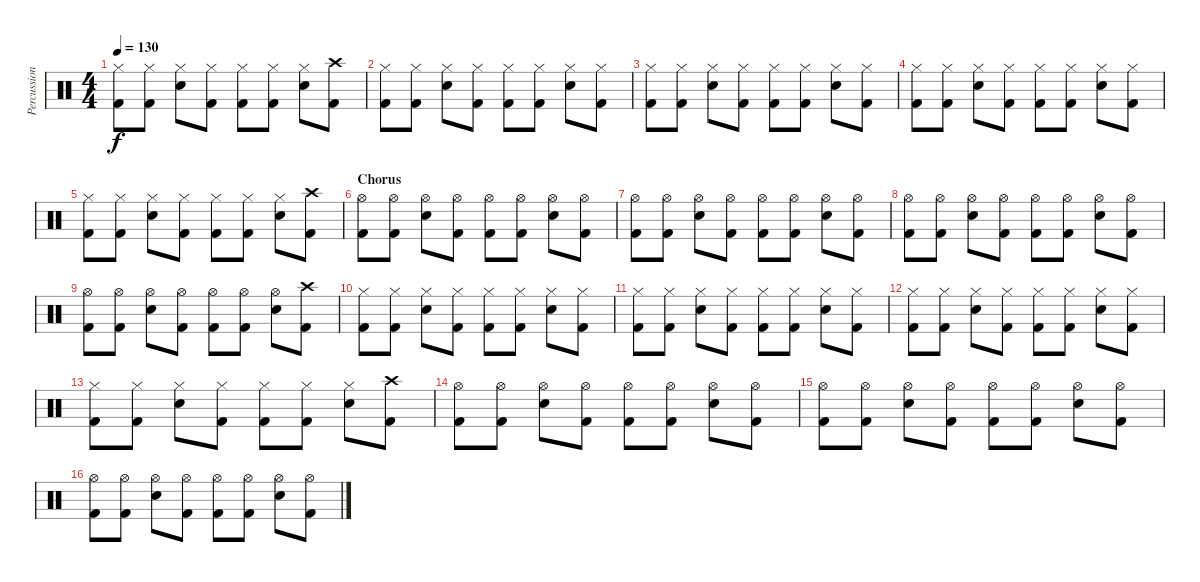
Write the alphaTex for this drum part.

\track ("Percussion" "Percussion") {instrument percussion}
\staff {score}
\articulation defaults
\ts (4 4)
\tempo 130
\clef neutral
\ks c
("Hi-Hat (closed)" "Kick (hit) 2").8{dy f} ("Hi-Hat (closed)" "Kick (hit) 2").8 ("Hi-Hat (closed)" "Electric Snare (hit)").8 ("Hi-Hat (closed)" "Kick (hit) 2").8 ("Hi-Hat (closed)" "Kick (hit) 2").8 ("Hi-Hat (closed)" "Kick (hit) 2").8 ("Hi-Hat (closed)" "Electric Snare (hit)").8 ("Crash high (hit)" "Kick (hit) 2").8 |
("Hi-Hat (closed)" "Kick (hit) 2").8 ("Hi-Hat (closed)" "Kick (hit) 2").8 ("Hi-Hat (closed)" "Electric Snare (hit)").8 ("Hi-Hat (closed)" "Kick (hit) 2").8 ("Hi-Hat (closed)" "Kick (hit) 2").8 ("Hi-Hat (closed)" "Kick (hit) 2").8 ("Hi-Hat (closed)" "Electric Snare (hit)").8 ("Hi-Hat (closed)" "Kick (hit) 2").8 |
("Hi-Hat (closed)" "Kick (hit) 2").8 ("Hi-Hat (closed)" "Kick (hit) 2").8 ("Hi-Hat (closed)" "Electric Snare (hit)").8 ("Hi-Hat (closed)" "Kick (hit) 2").8 ("Hi-Hat (closed)" "Kick (hit) 2").8 ("Hi-Hat (closed)" "Kick (hit) 2").8 ("Hi-Hat (closed)" "Electric Snare (hit)").8 ("Hi-Hat (closed)" "Kick (hit) 2").8 |
("Hi-Hat (closed)" "Kick (hit) 2").8 ("Hi-Hat (closed)" "Kick (hit) 2").8 ("Hi-Hat (closed)" "Electric Snare (hit)").8 ("Hi-Hat (closed)" "Kick (hit) 2").8 ("Hi-Hat (closed)" "Kick (hit) 2").8 ("Hi-Hat (closed)" "Kick (hit) 2").8 ("Hi-Hat (closed)" "Electric Snare (hit)").8 ("Hi-Hat (closed)" "Kick (hit) 2").8 |
("Hi-Hat (closed)" "Kick (hit) 2").8 ("Hi-Hat (closed)" "Kick (hit) 2").8 ("Hi-Hat (closed)" "Electric Snare (hit)").8 ("Hi-Hat (closed)" "Kick (hit) 2").8 ("Hi-Hat (closed)" "Kick (hit) 2").8 ("Hi-Hat (closed)" "Kick (hit) 2").8 ("Hi-Hat (closed)" "Electric Snare (hit)").8 ("Crash high (hit)" "Kick (hit) 2").8 |
\section ("" "Chorus")
("Hi-Hat (open)" "Kick (hit) 2").8 ("Hi-Hat (open)" "Kick (hit) 2").8 ("Hi-Hat (open)" "Electric Snare (hit)").8 ("Hi-Hat (open)" "Kick (hit) 2").8 ("Hi-Hat (open)" "Kick (hit) 2").8 ("Hi-Hat (open)" "Kick (hit) 2").8 ("Hi-Hat (open)" "Electric Snare (hit)").8 ("Hi-Hat (open)" "Kick (hit) 2").8 |
("Hi-Hat (open)" "Kick (hit) 2").8 ("Hi-Hat (open)" "Kick (hit) 2").8 ("Hi-Hat (open)" "Electric Snare (hit)").8 ("Hi-Hat (open)" "Kick (hit) 2").8 ("Hi-Hat (open)" "Kick (hit) 2").8 ("Hi-Hat (open)" "Kick (hit) 2").8 ("Hi-Hat (open)" "Electric Snare (hit)").8 ("Hi-Hat (open)" "Kick (hit) 2").8 |
("Hi-Hat (open)" "Kick (hit) 2").8 ("Hi-Hat (open)" "Kick (hit) 2").8 ("Hi-Hat (open)" "Electric Snare (hit)").8 ("Hi-Hat (open)" "Kick (hit) 2").8 ("Hi-Hat (open)" "Kick (hit) 2").8 ("Hi-Hat (open)" "Kick (hit) 2").8 ("Hi-Hat (open)" "Electric Snare (hit)").8 ("Hi-Hat (open)" "Kick (hit) 2").8 |
("Hi-Hat (open)" "Kick (hit) 2").8 ("Hi-Hat (open)" "Kick (hit) 2").8 ("Hi-Hat (open)" "Electric Snare (hit)").8 ("Hi-Hat (open)" "Kick (hit) 2").8 ("Hi-Hat (open)" "Kick (hit) 2").8 ("Hi-Hat (open)" "Kick (hit) 2").8 ("Hi-Hat (open)" "Electric Snare (hit)").8 ("Crash high (hit)" "Kick (hit) 2").8 |
("Hi-Hat (closed)" "Kick (hit) 2").8 ("Hi-Hat (closed)" "Kick (hit) 2").8 ("Hi-Hat (closed)" "Electric Snare (hit)").8 ("Hi-Hat (closed)" "Kick (hit) 2").8 ("Hi-Hat (closed)" "Kick (hit) 2").8 ("Hi-Hat (closed)" "Kick (hit) 2").8 ("Hi-Hat (closed)" "Electric Snare (hit)").8 ("Hi-Hat (closed)" "Kick (hit) 2").8 |
("Hi-Hat (closed)" "Kick (hit) 2").8 ("Hi-Hat (closed)" "Kick (hit) 2").8 ("Hi-Hat (closed)" "Electric Snare (hit)").8 ("Hi-Hat (closed)" "Kick (hit) 2").8 ("Hi-Hat (closed)" "Kick (hit) 2").8 ("Hi-Hat (closed)" "Kick (hit) 2").8 ("Hi-Hat (closed)" "Electric Snare (hit)").8 ("Hi-Hat (closed)" "Kick (hit) 2").8 |
("Hi-Hat (closed)" "Kick (hit) 2").8 ("Hi-Hat (closed)" "Kick (hit) 2").8 ("Hi-Hat (closed)" "Electric Snare (hit)").8 ("Hi-Hat (closed)" "Kick (hit) 2").8 ("Hi-Hat (closed)" "Kick (hit) 2").8 ("Hi-Hat (closed)" "Kick (hit) 2").8 ("Hi-Hat (closed)" "Electric Snare (hit)").8 ("Hi-Hat (closed)" "Kick (hit) 2").8 |
("Hi-Hat (closed)" "Kick (hit) 2").8 ("Hi-Hat (closed)" "Kick (hit) 2").8 ("Hi-Hat (closed)" "Electric Snare (hit)").8 ("Hi-Hat (closed)" "Kick (hit) 2").8 ("Hi-Hat (closed)" "Kick (hit) 2").8 ("Hi-Hat (closed)" "Kick (hit) 2").8 ("Hi-Hat (closed)" "Electric Snare (hit)").8 ("Crash high (hit)" "Kick (hit) 2").8 |
("Hi-Hat (open)" "Kick (hit) 2").8 ("Hi-Hat (open)" "Kick (hit) 2").8 ("Hi-Hat (open)" "Electric Snare (hit)").8 ("Hi-Hat (open)" "Kick (hit) 2").8 ("Hi-Hat (open)" "Kick (hit) 2").8 ("Hi-Hat (open)" "Kick (hit) 2").8 ("Hi-Hat (open)" "Electric Snare (hit)").8 ("Hi-Hat (open)" "Kick (hit) 2").8 |
("Hi-Hat (open)" "Kick (hit) 2").8 ("Hi-Hat (open)" "Kick (hit) 2").8 ("Hi-Hat (open)" "Electric Snare (hit)").8 ("Hi-Hat (open)" "Kick (hit) 2").8 ("Hi-Hat (open)" "Kick (hit) 2").8 ("Hi-Hat (open)" "Kick (hit) 2").8 ("Hi-Hat (open)" "Electric Snare (hit)").8 ("Hi-Hat (open)" "Kick (hit) 2").8 |
("Hi-Hat (open)" "Kick (hit) 2").8 ("Hi-Hat (open)" "Kick (hit) 2").8 ("Hi-Hat (open)" "Electric Snare (hit)").8 ("Hi-Hat (open)" "Kick (hit) 2").8 ("Hi-Hat (open)" "Kick (hit) 2").8 ("Hi-Hat (open)" "Kick (hit) 2").8 ("Hi-Hat (open)" "Electric Snare (hit)").8 ("Hi-Hat (open)" "Kick (hit) 2").8
